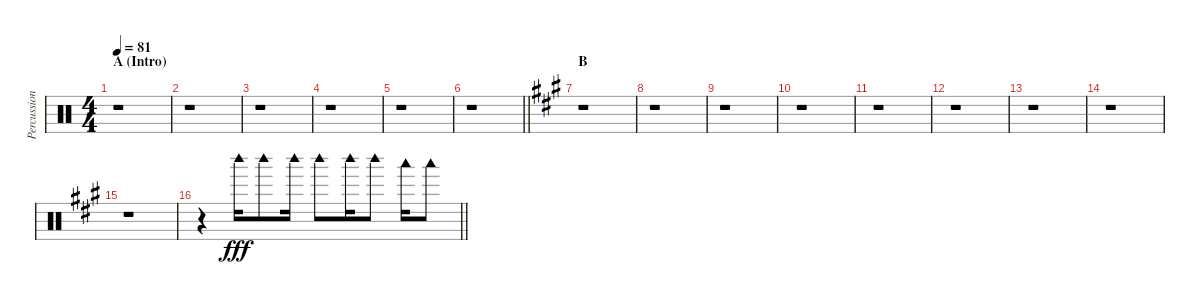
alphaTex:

\track ("Percussion" "Percussion") {instrument percussion}
\staff {score}
\articulation defaults
\ts (4 4)
\section ("" "A (Intro)")
\tempo 81
\clef neutral
\ks c
r.1{dy fff} |
r.1 |
r.1 |
r.1 |
r.1 |
\barLineRight lightlight
r.1 |
\section ("" "B")
\ks f#minor
r.1 |
r.1 |
r.1 |
r.1 |
r.1 |
r.1 |
r.1 |
r.1 |
r.1 |
\barLineRight lightlight
r.4 "Woodblock high (hit)".16 "Woodblock high (hit)".8 "Woodblock high (hit)".16 "Woodblock high (hit)".8 "Woodblock high (hit)".16 "Woodblock high (hit)".8 "Woodblock low (hit)".16 "Woodblock low (hit)".8
